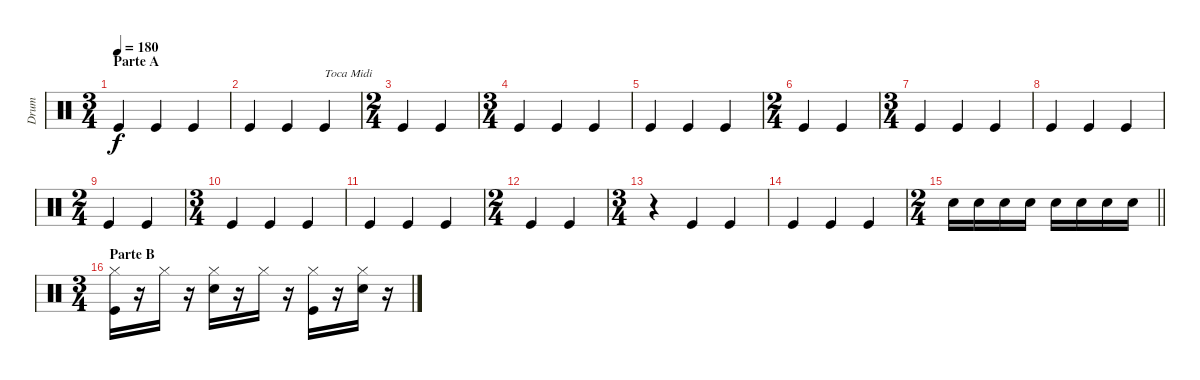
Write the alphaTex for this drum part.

\track ("Drum" "Drum") {instrument percussion}
\staff {score}
\articulation defaults
\ts (3 4)
\section ("" "Parte A")
\tempo 180
\clef neutral
\ks c "Kick (hit)".4{dy f} "Kick (hit)".4 "Kick (hit)".4
|
"Kick (hit)".4 "Kick (hit)".4 "Kick (hit)".4{txt "Toca Midi"} |
\ts (2 4)
"Kick (hit)".4 "Kick (hit)".4 |
\ts (3 4)
"Kick (hit)".4 "Kick (hit)".4 "Kick (hit)".4 |
"Kick (hit)".4 "Kick (hit)".4 "Kick (hit)".4 |
\ts (2 4)
"Kick (hit)".4 "Kick (hit)".4 |
\ts (3 4)
"Kick (hit)".4 "Kick (hit)".4 "Kick (hit)".4 |
"Kick (hit)".4 "Kick (hit)".4 "Kick (hit)".4 |
\ts (2 4)
"Kick (hit)".4 "Kick (hit)".4 |
\ts (3 4)
"Kick (hit)".4 "Kick (hit)".4 "Kick (hit)".4 |
"Kick (hit)".4 "Kick (hit)".4 "Kick (hit)".4 |
\ts (2 4)
"Kick (hit)".4 "Kick (hit)".4 |
\ts (3 4)
r.4 "Kick (hit)".4 "Kick (hit)".4 |
"Kick (hit)".4 "Kick (hit)".4 "Kick (hit)".4 |
\ts (2 4)
\barLineRight lightlight "Snare (hit) 2".16 "Snare (hit) 2".16 "Snare (hit) 2".16 "Snare (hit) 2".16 "Snare (hit) 2".16 "Snare (hit) 2".16 "Snare (hit) 2".16 "Snare (hit) 2".16
|
\ts (3 4)
\section ("" "Parte B")
("Hi-Hat (closed)" "Kick (hit)").16 r.16 "Hi-Hat (closed)".16 r.16 ("Hi-Hat (closed)" "Snare (hit) 2").16 r.16 "Hi-Hat (closed)".16 r.16 ("Hi-Hat (closed)" "Kick (hit)").16 r.16 ("Hi-Hat (closed)" "Snare (hit) 2").16 r.16
